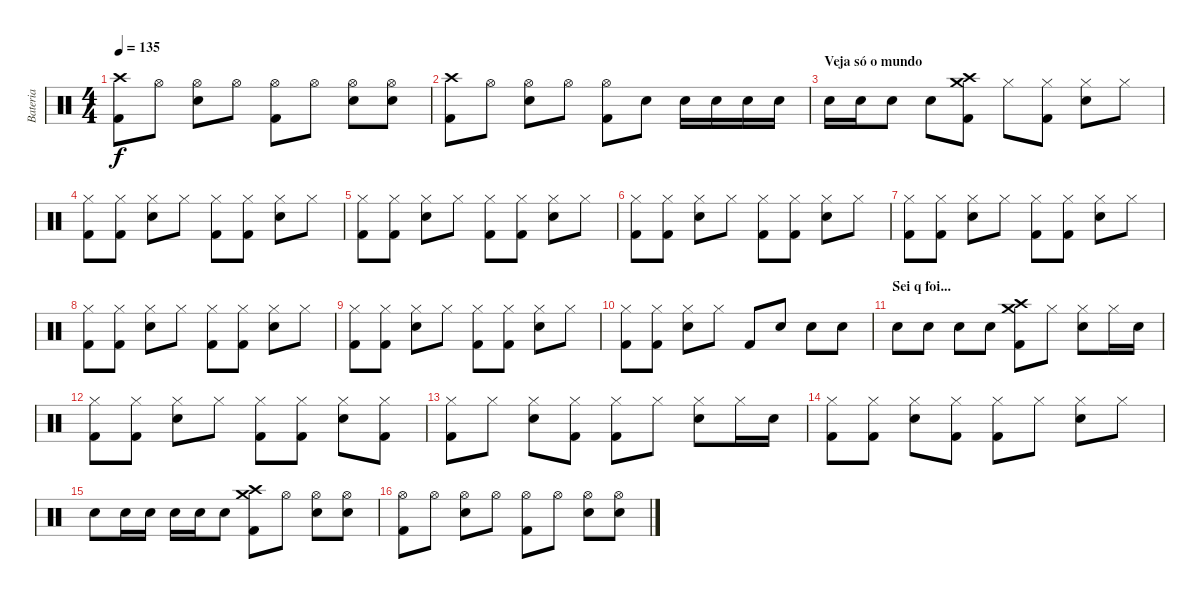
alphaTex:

\track ("Bateria" "Bateria") {instrument percussion}
\staff {score}
\articulation defaults
\ts (4 4)
\tempo 135
\clef neutral
\ks c
("Crash high (hit)" "Kick (hit) 2").8{dy f} "Hi-Hat (open)".8 ("Hi-Hat (open)" "Electric Snare (hit)").8 "Hi-Hat (open)".8 ("Hi-Hat (open)" "Kick (hit) 2").8 "Hi-Hat (open)".8 ("Hi-Hat (open)" "Electric Snare (hit)").8 ("Hi-Hat (open)" "Electric Snare (hit)").8 |
("Crash high (hit)" "Kick (hit) 2").8 "Hi-Hat (open)".8 ("Hi-Hat (open)" "Electric Snare (hit)").8 "Hi-Hat (open)".8 ("Hi-Hat (open)" "Kick (hit) 2").8 "Electric Snare (hit)".8 "Electric Snare (hit)".16 "Electric Snare (hit)".16 "Electric Snare (hit)".16 "Electric Snare (hit)".16 |
\section ("" "Veja só o mundo")
"Electric Snare (hit)".16 "Electric Snare (hit)".16 "Electric Snare (hit)".8 "Electric Snare (hit)".8 ("Crash medium (hit)" "Crash high (hit)" "Kick (hit) 2").8 "Hi-Hat (closed)".8 ("Hi-Hat (closed)" "Kick (hit) 2").8 ("Hi-Hat (closed)" "Electric Snare (hit)").8 "Hi-Hat (closed)".8 |
("Hi-Hat (closed)" "Kick (hit) 2").8 ("Hi-Hat (closed)" "Kick (hit) 2").8 ("Hi-Hat (closed)" "Electric Snare (hit)").8 "Hi-Hat (closed)".8 ("Hi-Hat (closed)" "Kick (hit) 2").8 ("Hi-Hat (closed)" "Kick (hit) 2").8 ("Hi-Hat (closed)" "Electric Snare (hit)").8 "Hi-Hat (closed)".8 |
("Hi-Hat (closed)" "Kick (hit) 2").8 ("Hi-Hat (closed)" "Kick (hit) 2").8 ("Hi-Hat (closed)" "Electric Snare (hit)").8 "Hi-Hat (closed)".8 ("Hi-Hat (closed)" "Kick (hit) 2").8 ("Hi-Hat (closed)" "Kick (hit) 2").8 ("Hi-Hat (closed)" "Electric Snare (hit)").8 "Hi-Hat (closed)".8 |
("Hi-Hat (closed)" "Kick (hit) 2").8 ("Hi-Hat (closed)" "Kick (hit) 2").8 ("Hi-Hat (closed)" "Electric Snare (hit)").8 "Hi-Hat (closed)".8 ("Hi-Hat (closed)" "Kick (hit) 2").8 ("Hi-Hat (closed)" "Kick (hit) 2").8 ("Hi-Hat (closed)" "Electric Snare (hit)").8 "Hi-Hat (closed)".8 |
("Hi-Hat (closed)" "Kick (hit) 2").8 ("Hi-Hat (closed)" "Kick (hit) 2").8 ("Hi-Hat (closed)" "Electric Snare (hit)").8 "Hi-Hat (closed)".8 ("Hi-Hat (closed)" "Kick (hit) 2").8 ("Hi-Hat (closed)" "Kick (hit) 2").8 ("Hi-Hat (closed)" "Electric Snare (hit)").8 "Hi-Hat (closed)".8 |
("Hi-Hat (closed)" "Kick (hit) 2").8 ("Hi-Hat (closed)" "Kick (hit) 2").8 ("Hi-Hat (closed)" "Electric Snare (hit)").8 "Hi-Hat (closed)".8 ("Hi-Hat (closed)" "Kick (hit) 2").8 ("Hi-Hat (closed)" "Kick (hit) 2").8 ("Hi-Hat (closed)" "Electric Snare (hit)").8 "Hi-Hat (closed)".8 |
("Hi-Hat (closed)" "Kick (hit) 2").8 ("Hi-Hat (closed)" "Kick (hit) 2").8 ("Hi-Hat (closed)" "Electric Snare (hit)").8 "Hi-Hat (closed)".8 ("Hi-Hat (closed)" "Kick (hit) 2").8 ("Hi-Hat (closed)" "Kick (hit) 2").8 ("Hi-Hat (closed)" "Electric Snare (hit)").8 "Hi-Hat (closed)".8 |
("Hi-Hat (closed)" "Kick (hit) 2").8 ("Hi-Hat (closed)" "Kick (hit) 2").8 ("Hi-Hat (closed)" "Electric Snare (hit)").8 "Hi-Hat (closed)".8 "Kick (hit) 2".8 "Electric Snare (hit)".8 "Electric Snare (hit)".8 "Electric Snare (hit)".8 |
\section ("" "Sei q foi...")
"Electric Snare (hit)".8 "Electric Snare (hit)".8 "Electric Snare (hit)".8 "Electric Snare (hit)".8 ("Crash medium (hit)" "Crash high (hit)" "Kick (hit) 2").8 "Hi-Hat (closed)".8 ("Hi-Hat (closed)" "Electric Snare (hit)").8 "Hi-Hat (closed)".16 "Electric Snare (hit)".16 |
("Hi-Hat (closed)" "Kick (hit) 2").8 ("Hi-Hat (closed)" "Kick (hit) 2").8 ("Hi-Hat (closed)" "Electric Snare (hit)").8 "Hi-Hat (closed)".8 ("Hi-Hat (closed)" "Kick (hit) 2").8 ("Hi-Hat (closed)" "Kick (hit) 2").8 ("Hi-Hat (closed)" "Electric Snare (hit)").8 ("Hi-Hat (closed)" "Kick (hit) 2").8 |
("Hi-Hat (closed)" "Kick (hit) 2").8 "Hi-Hat (closed)".8 ("Hi-Hat (closed)" "Electric Snare (hit)").8 ("Hi-Hat (closed)" "Kick (hit) 2").8 ("Hi-Hat (closed)" "Kick (hit) 2").8 "Hi-Hat (closed)".8 ("Hi-Hat (closed)" "Electric Snare (hit)").8 "Hi-Hat (closed)".16 "Electric Snare (hit)".16 |
("Hi-Hat (closed)" "Kick (hit) 2").8 ("Hi-Hat (closed)" "Kick (hit) 2").8 ("Hi-Hat (closed)" "Electric Snare (hit)").8 ("Hi-Hat (closed)" "Kick (hit) 2").8 ("Hi-Hat (closed)" "Kick (hit) 2").8 "Hi-Hat (closed)".8 ("Hi-Hat (closed)" "Electric Snare (hit)").8 "Hi-Hat (closed)".8 |
"Electric Snare (hit)".8 "Electric Snare (hit)".16 "Electric Snare (hit)".16 "Electric Snare (hit)".16 "Electric Snare (hit)".16 "Electric Snare (hit)".8 ("Crash medium (hit)" "Crash high (hit)" "Kick (hit) 2").8 "Hi-Hat (open)".8 ("Hi-Hat (open)" "Electric Snare (hit)").8 ("Hi-Hat (open)" "Electric Snare (hit)").8 |
("Hi-Hat (open)" "Kick (hit) 2").8 "Hi-Hat (open)".8 ("Hi-Hat (open)" "Electric Snare (hit)").8 "Hi-Hat (open)".8 ("Hi-Hat (open)" "Kick (hit) 2").8 "Hi-Hat (open)".8 ("Hi-Hat (open)" "Electric Snare (hit)").8 ("Hi-Hat (open)" "Electric Snare (hit)").8
